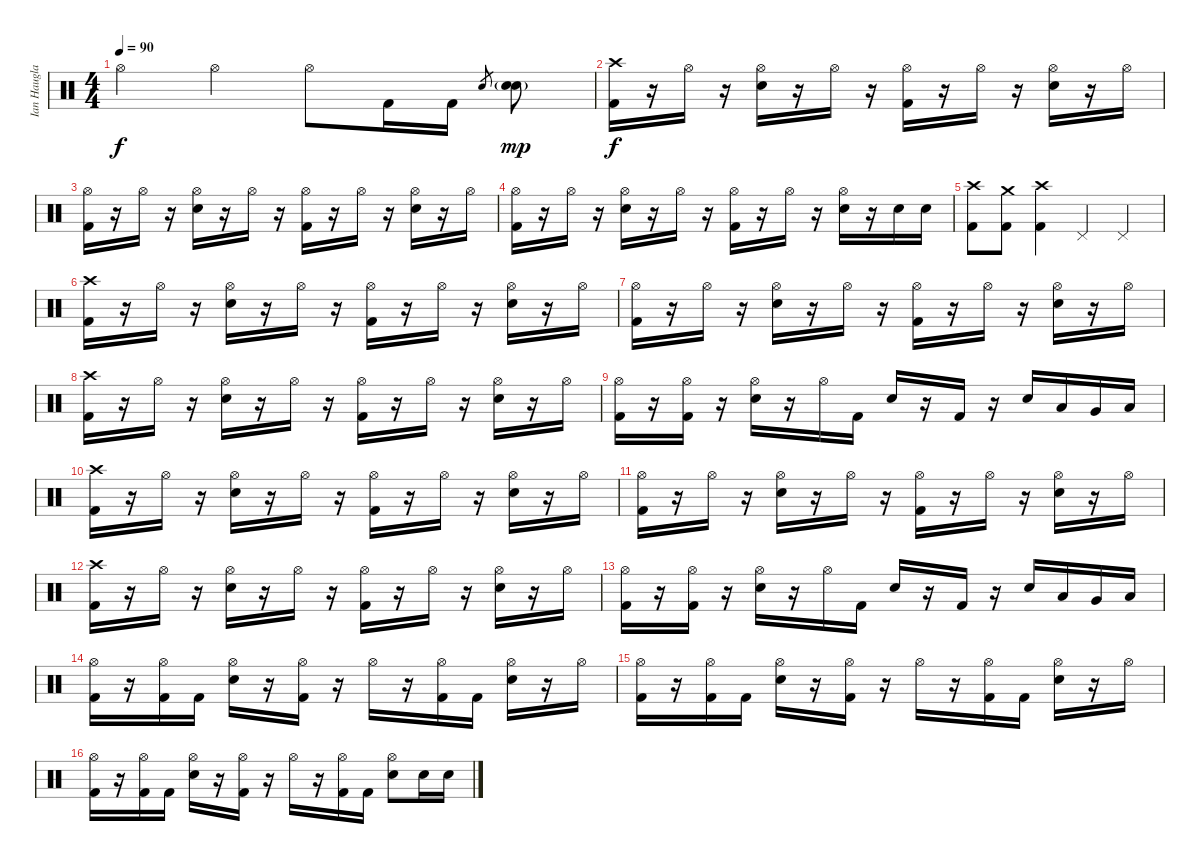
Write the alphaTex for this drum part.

\track ("Ian Haugland" "Ian Haugla") {instrument percussion}
\staff {score}
\articulation defaults
\ts (4 4)
\tempo 90
\clef neutral
\ks c "Hi-Hat (open)".4{dy f} "Hi-Hat (open)".4 "Hi-Hat (open)".8 "Kick (hit) 2".16 "Kick (hit) 2".16 "Electric Snare (hit)".8{gr}
("Snare (hit) 2"{g} "Electric Snare (hit)").8{dy mp} |
("Crash high (hit)" "Kick (hit) 2").16{dy f} r.16 "Hi-Hat (open)".16 r.16 ("Hi-Hat (open)" "Electric Snare (hit)").16 r.16 "Hi-Hat (open)".16 r.16 ("Hi-Hat (open)" "Kick (hit) 2").16 r.16 "Hi-Hat (open)".16 r.16 ("Hi-Hat (open)" "Electric Snare (hit)").16 r.16 "Hi-Hat (open)".16 |
("Hi-Hat (open)" "Kick (hit) 2").16 r.16 "Hi-Hat (open)".16 r.16 ("Hi-Hat (open)" "Electric Snare (hit)").16 r.16 "Hi-Hat (open)".16 r.16 ("Hi-Hat (open)" "Kick (hit) 2").16 r.16 "Hi-Hat (open)".16 r.16 ("Hi-Hat (open)" "Electric Snare (hit)").16 r.16 "Hi-Hat (open)".16 |
("Hi-Hat (open)" "Kick (hit) 2").16 r.16 "Hi-Hat (open)".16 r.16 ("Hi-Hat (open)" "Electric Snare (hit)").16 r.16 "Hi-Hat (open)".16 r.16 ("Hi-Hat (open)" "Kick (hit) 2").16 r.16 "Hi-Hat (open)".16 r.16 ("Hi-Hat (open)" "Electric Snare (hit)").16 r.16 "Electric Snare (hit)".16 "Electric Snare (hit)".16 |
("Crash high (hit)" "Kick (hit) 2").8 ("Crash medium (hit)" "Kick (hit) 2").8 ("Crash high (hit)" "Kick (hit) 2").4 "Pedal Hi-Hat (hit)".4 "Pedal Hi-Hat (hit)".4 |
("Crash high (hit)" "Kick (hit) 2").16 r.16 "Hi-Hat (open)".16 r.16 ("Hi-Hat (open)" "Electric Snare (hit)").16 r.16 "Hi-Hat (open)".16 r.16 ("Hi-Hat (open)" "Kick (hit) 2").16 r.16 "Hi-Hat (open)".16 r.16 ("Hi-Hat (open)" "Electric Snare (hit)").16 r.16 "Hi-Hat (open)".16 |
("Hi-Hat (open)" "Kick (hit) 2").16 r.16 "Hi-Hat (open)".16 r.16 ("Hi-Hat (open)" "Electric Snare (hit)").16 r.16 "Hi-Hat (open)".16 r.16 ("Hi-Hat (open)" "Kick (hit) 2").16 r.16 "Hi-Hat (open)".16 r.16 ("Hi-Hat (open)" "Electric Snare (hit)").16 r.16 "Hi-Hat (open)".16 |
("Crash high (hit)" "Kick (hit) 2").16 r.16 "Hi-Hat (open)".16 r.16 ("Hi-Hat (open)" "Electric Snare (hit)").16 r.16 "Hi-Hat (open)".16 r.16 ("Hi-Hat (open)" "Kick (hit) 2").16 r.16 "Hi-Hat (open)".16 r.16 ("Hi-Hat (open)" "Electric Snare (hit)").16 r.16 "Hi-Hat (open)".16 |
("Hi-Hat (open)" "Kick (hit) 2").16 r.16 ("Hi-Hat (open)" "Kick (hit) 2").16 r.16 ("Hi-Hat (open)" "Electric Snare (hit)").16 r.16 "Hi-Hat (open)".16 "Kick (hit) 2".16 "Electric Snare (hit)".16 r.16 "Kick (hit) 2".16 r.16 "Electric Snare (hit)".16 "Low Tom (hit)".16 "Very Low Tom (hit)".16 "Low Floor Tom (hit)".16 |
("Crash high (hit)" "Kick (hit) 2").16 r.16 "Hi-Hat (open)".16 r.16 ("Hi-Hat (open)" "Electric Snare (hit)").16 r.16 "Hi-Hat (open)".16 r.16 ("Hi-Hat (open)" "Kick (hit) 2").16 r.16 "Hi-Hat (open)".16 r.16 ("Hi-Hat (open)" "Electric Snare (hit)").16 r.16 "Hi-Hat (open)".16 |
("Hi-Hat (open)" "Kick (hit) 2").16 r.16 "Hi-Hat (open)".16 r.16 ("Hi-Hat (open)" "Electric Snare (hit)").16 r.16 "Hi-Hat (open)".16 r.16 ("Hi-Hat (open)" "Kick (hit) 2").16 r.16 "Hi-Hat (open)".16 r.16 ("Hi-Hat (open)" "Electric Snare (hit)").16 r.16 "Hi-Hat (open)".16 |
("Crash high (hit)" "Kick (hit) 2").16 r.16 "Hi-Hat (open)".16 r.16 ("Hi-Hat (open)" "Electric Snare (hit)").16 r.16 "Hi-Hat (open)".16 r.16 ("Hi-Hat (open)" "Kick (hit) 2").16 r.16 "Hi-Hat (open)".16 r.16 ("Hi-Hat (open)" "Electric Snare (hit)").16 r.16 "Hi-Hat (open)".16 |
("Hi-Hat (open)" "Kick (hit) 2").16 r.16 ("Hi-Hat (open)" "Kick (hit) 2").16 r.16 ("Hi-Hat (open)" "Electric Snare (hit)").16 r.16 "Hi-Hat (open)".16 "Kick (hit) 2".16 "Electric Snare (hit)".16 r.16 "Kick (hit) 2".16 r.16 "Electric Snare (hit)".16 "Low Tom (hit)".16 "Very Low Tom (hit)".16 "Low Floor Tom (hit)".16 |
("Hi-Hat (open)" "Kick (hit) 2").16 r.16 ("Hi-Hat (open)" "Kick (hit) 2").16 "Kick (hit) 2".16 ("Hi-Hat (open)" "Electric Snare (hit)").16 r.16 ("Hi-Hat (open)" "Kick (hit) 2").16 r.16 "Hi-Hat (open)".16 r.16 ("Hi-Hat (open)" "Kick (hit) 2").16 "Kick (hit) 2".16 ("Hi-Hat (open)" "Electric Snare (hit)").16 r.16 "Hi-Hat (open)".16 |
("Hi-Hat (open)" "Kick (hit) 2").16 r.16 ("Hi-Hat (open)" "Kick (hit) 2").16 "Kick (hit) 2".16 ("Hi-Hat (open)" "Electric Snare (hit)").16 r.16 ("Hi-Hat (open)" "Kick (hit) 2").16 r.16 "Hi-Hat (open)".16 r.16 ("Hi-Hat (open)" "Kick (hit) 2").16 "Kick (hit) 2".16 ("Hi-Hat (open)" "Electric Snare (hit)").16 r.16 "Hi-Hat (open)".16 |
("Hi-Hat (open)" "Kick (hit) 2").16 r.16 ("Hi-Hat (open)" "Kick (hit) 2").16 "Kick (hit) 2".16 ("Hi-Hat (open)" "Electric Snare (hit)").16 r.16 ("Hi-Hat (open)" "Kick (hit) 2").16 r.16 "Hi-Hat (open)".16 r.16 ("Hi-Hat (open)" "Kick (hit) 2").16 "Kick (hit) 2".16 ("Hi-Hat (open)" "Electric Snare (hit)").8 "Electric Snare (hit)".16 "Electric Snare (hit)".16
